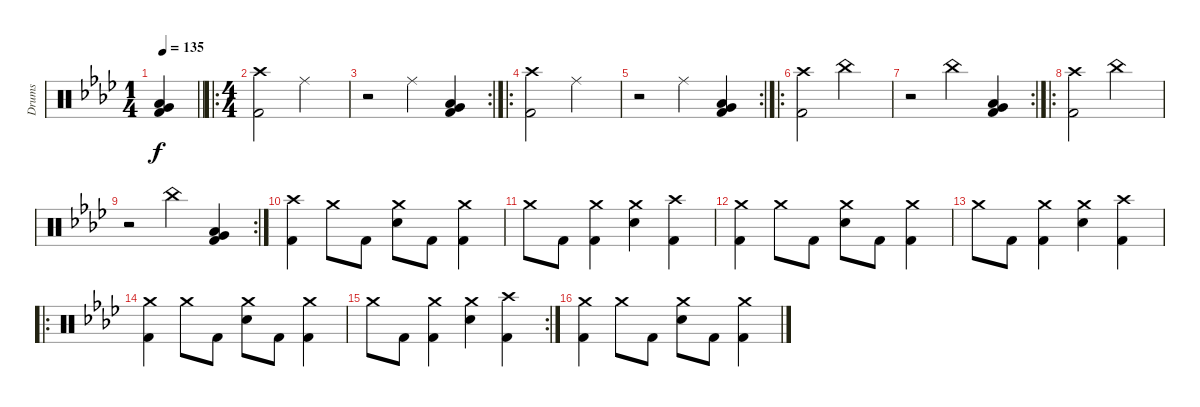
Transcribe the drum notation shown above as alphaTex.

\track ("Drums" "Drums") {instrument percussion}
\staff {score}
\articulation defaults
\ts (1 4)
\tempo 135
\clef neutral
\barLineRight lightlight
\ks ab
("Very Low Tom (hit)" "Low Floor Tom (hit)" "Kick (hit) 2").4{dy f} |
\ro
\ts (4 4)
("Crash high (hit)" "Kick (hit) 2").2 "Ride (middle)".2 |
\rc 2
r.2 "Ride (middle)".4 ("Very Low Tom (hit)" "Low Floor Tom (hit)" "Kick (hit) 2").4 |
\ro
("Crash high (hit)" "Kick (hit) 2").2 "Ride (middle)".2 |
\rc 2
r.2 "Ride (middle)".4 ("Very Low Tom (hit)" "Low Floor Tom (hit)" "Kick (hit) 2").4 |
\ro
("Crash high (hit)" "Kick (hit) 2").2 "China (hit)".2 |
\rc 2
r.2 "China (hit)".4 ("Very Low Tom (hit)" "Low Floor Tom (hit)" "Kick (hit) 2").4 |
\ro
("Crash high (hit)" "Kick (hit) 2").2 "China (hit)".2 |
\rc 2
r.2 "China (hit)".4 ("Very Low Tom (hit)" "Low Floor Tom (hit)" "Kick (hit) 2").4 |
("Crash high (hit)" "Kick (hit) 2").4 "Crash medium (hit)".8 "Kick (hit) 2".8 ("Crash medium (hit)" "Electric Snare (hit)").8 "Kick (hit) 2".8 ("Crash medium (hit)" "Kick (hit) 2").4 |
"Crash medium (hit)".8 "Kick (hit) 2".8 ("Crash medium (hit)" "Kick (hit) 2").4 ("Crash medium (hit)" "Electric Snare (hit)").4 ("Crash high (hit)" "Kick (hit) 2").4 |
("Crash medium (hit)" "Kick (hit) 2").4 "Crash medium (hit)".8 "Kick (hit) 2".8 ("Crash medium (hit)" "Electric Snare (hit)").8 "Kick (hit) 2".8 ("Crash medium (hit)" "Kick (hit) 2").4 |
"Crash medium (hit)".8 "Kick (hit) 2".8 ("Crash medium (hit)" "Kick (hit) 2").4 ("Crash medium (hit)" "Electric Snare (hit)").4 ("Crash high (hit)" "Kick (hit) 2").4 |
\ro
("Crash medium (hit)" "Kick (hit) 2").4 "Crash medium (hit)".8 "Kick (hit) 2".8 ("Crash medium (hit)" "Electric Snare (hit)").8 "Kick (hit) 2".8 ("Crash medium (hit)" "Kick (hit) 2").4 |
\rc 2 "Crash medium (hit)".8 "Kick (hit) 2".8
("Crash medium (hit)" "Kick (hit) 2").4 ("Crash medium (hit)" "Electric Snare (hit)").4 ("Crash high (hit)" "Kick (hit) 2").4 |
("Crash medium (hit)" "Kick (hit) 2").4 "Crash medium (hit)".8 "Kick (hit) 2".8 ("Crash medium (hit)" "Electric Snare (hit)").8 "Kick (hit) 2".8 ("Crash medium (hit)" "Kick (hit) 2").4
